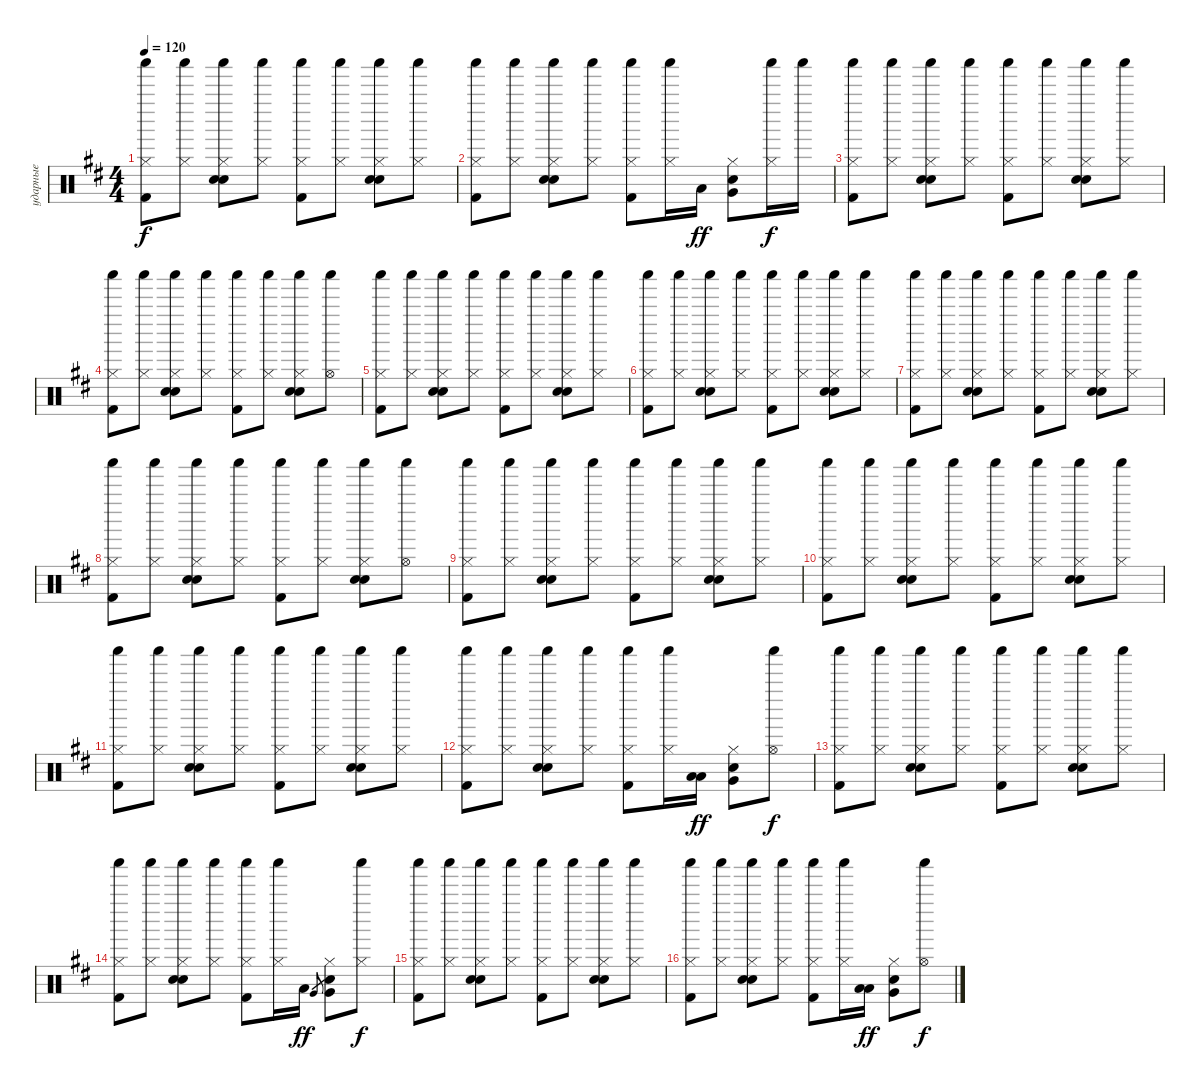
\track ("ударные" "ударные") {instrument percussion}
\staff {score}
\articulation defaults
\ts (4 4)
\tempo 120
\clef neutral
\ks bminor
("Hi-Hat (closed)" "Shaker (hit)" "Kick (hit) 2").8{dy f} ("Hi-Hat (closed)" "Shaker (hit)").8 ("Hi-Hat (closed)" "Shaker (hit)" "Hand Clap (hit)" "Snare (hit) 2").8 ("Hi-Hat (closed)" "Shaker (hit)").8 ("Hi-Hat (closed)" "Shaker (hit)" "Kick (hit) 2").8 ("Hi-Hat (closed)" "Shaker (hit)").8 ("Hi-Hat (closed)" "Shaker (hit)" "Hand Clap (hit)" "Snare (hit) 2").8 ("Hi-Hat (closed)" "Shaker (hit)").8 |
("Hi-Hat (closed)" "Shaker (hit)" "Kick (hit) 2").8 ("Hi-Hat (closed)" "Shaker (hit)").8 ("Hi-Hat (closed)" "Shaker (hit)" "Hand Clap (hit)" "Snare (hit) 2").8 ("Hi-Hat (closed)" "Shaker (hit)").8 ("Hi-Hat (closed)" "Shaker (hit)" "Kick (hit) 2").8 ("Hi-Hat (closed)" "Shaker (hit)").16 "Low Floor Tom (hit)".16{dy ff} ("Snare (hit) 2" "Very Low Tom (hit)" "Hi-Hat (closed)").8 ("Hi-Hat (closed)" "Shaker (hit)").16{dy f} "Shaker (hit)".16 |
("Hi-Hat (closed)" "Shaker (hit)" "Kick (hit) 2").8 ("Hi-Hat (closed)" "Shaker (hit)").8 ("Hi-Hat (closed)" "Shaker (hit)" "Hand Clap (hit)" "Snare (hit) 2").8 ("Hi-Hat (closed)" "Shaker (hit)").8 ("Hi-Hat (closed)" "Shaker (hit)" "Kick (hit) 2").8 ("Hi-Hat (closed)" "Shaker (hit)").8 ("Hi-Hat (closed)" "Shaker (hit)" "Hand Clap (hit)" "Snare (hit) 2").8 ("Hi-Hat (closed)" "Shaker (hit)").8 |
("Hi-Hat (closed)" "Shaker (hit)" "Kick (hit) 2").8 ("Hi-Hat (closed)" "Shaker (hit)").8 ("Hi-Hat (closed)" "Shaker (hit)" "Hand Clap (hit)" "Snare (hit) 2").8 ("Hi-Hat (closed)" "Shaker (hit)").8 ("Hi-Hat (closed)" "Shaker (hit)" "Kick (hit) 2").8 ("Hi-Hat (closed)" "Shaker (hit)").8 ("Hi-Hat (closed)" "Shaker (hit)" "Hand Clap (hit)" "Snare (hit) 2").8 ("Shaker (hit)" "Hi-Hat (open)").8 |
("Hi-Hat (closed)" "Shaker (hit)" "Kick (hit) 2").8 ("Hi-Hat (closed)" "Shaker (hit)").8 ("Hi-Hat (closed)" "Shaker (hit)" "Hand Clap (hit)" "Snare (hit) 2").8 ("Hi-Hat (closed)" "Shaker (hit)").8 ("Hi-Hat (closed)" "Shaker (hit)" "Kick (hit) 2").8 ("Hi-Hat (closed)" "Shaker (hit)").8 ("Hi-Hat (closed)" "Shaker (hit)" "Hand Clap (hit)" "Snare (hit) 2").8 ("Hi-Hat (closed)" "Shaker (hit)").8 |
("Hi-Hat (closed)" "Shaker (hit)" "Kick (hit) 2").8 ("Hi-Hat (closed)" "Shaker (hit)").8 ("Hi-Hat (closed)" "Shaker (hit)" "Hand Clap (hit)" "Snare (hit) 2").8 ("Hi-Hat (closed)" "Shaker (hit)").8 ("Hi-Hat (closed)" "Shaker (hit)" "Kick (hit) 2").8 ("Hi-Hat (closed)" "Shaker (hit)").8 ("Hi-Hat (closed)" "Shaker (hit)" "Hand Clap (hit)" "Snare (hit) 2").8 ("Hi-Hat (closed)" "Shaker (hit)").8 |
("Hi-Hat (closed)" "Shaker (hit)" "Kick (hit) 2").8 ("Hi-Hat (closed)" "Shaker (hit)").8 ("Hi-Hat (closed)" "Shaker (hit)" "Hand Clap (hit)" "Snare (hit) 2").8 ("Hi-Hat (closed)" "Shaker (hit)").8 ("Hi-Hat (closed)" "Shaker (hit)" "Kick (hit) 2").8 ("Hi-Hat (closed)" "Shaker (hit)").8 ("Hi-Hat (closed)" "Shaker (hit)" "Hand Clap (hit)" "Snare (hit) 2").8 ("Hi-Hat (closed)" "Shaker (hit)").8 |
("Hi-Hat (closed)" "Shaker (hit)" "Kick (hit) 2").8 ("Hi-Hat (closed)" "Shaker (hit)").8 ("Hi-Hat (closed)" "Shaker (hit)" "Hand Clap (hit)" "Snare (hit) 2").8 ("Hi-Hat (closed)" "Shaker (hit)").8 ("Hi-Hat (closed)" "Shaker (hit)" "Kick (hit) 2").8 ("Hi-Hat (closed)" "Shaker (hit)").8 ("Hi-Hat (closed)" "Shaker (hit)" "Hand Clap (hit)" "Snare (hit) 2").8 ("Shaker (hit)" "Hi-Hat (open)").8 |
("Hi-Hat (closed)" "Shaker (hit)" "Kick (hit) 2").8 ("Hi-Hat (closed)" "Shaker (hit)").8 ("Hi-Hat (closed)" "Shaker (hit)" "Hand Clap (hit)" "Snare (hit) 2").8 ("Hi-Hat (closed)" "Shaker (hit)").8 ("Hi-Hat (closed)" "Shaker (hit)" "Kick (hit) 2").8 ("Hi-Hat (closed)" "Shaker (hit)").8 ("Hi-Hat (closed)" "Shaker (hit)" "Hand Clap (hit)" "Snare (hit) 2").8 ("Hi-Hat (closed)" "Shaker (hit)").8 |
("Hi-Hat (closed)" "Shaker (hit)" "Kick (hit) 2").8 ("Hi-Hat (closed)" "Shaker (hit)").8 ("Hi-Hat (closed)" "Shaker (hit)" "Hand Clap (hit)" "Snare (hit) 2").8 ("Hi-Hat (closed)" "Shaker (hit)").8 ("Hi-Hat (closed)" "Shaker (hit)" "Kick (hit) 2").8 ("Hi-Hat (closed)" "Shaker (hit)").8 ("Hi-Hat (closed)" "Shaker (hit)" "Hand Clap (hit)" "Snare (hit) 2").8 ("Hi-Hat (closed)" "Shaker (hit)").8 |
("Hi-Hat (closed)" "Shaker (hit)" "Kick (hit) 2").8 ("Hi-Hat (closed)" "Shaker (hit)").8 ("Hi-Hat (closed)" "Shaker (hit)" "Hand Clap (hit)" "Snare (hit) 2").8 ("Hi-Hat (closed)" "Shaker (hit)").8 ("Hi-Hat (closed)" "Shaker (hit)" "Kick (hit) 2").8 ("Hi-Hat (closed)" "Shaker (hit)").8 ("Hi-Hat (closed)" "Shaker (hit)" "Hand Clap (hit)" "Snare (hit) 2").8 ("Hi-Hat (closed)" "Shaker (hit)").8 |
("Hi-Hat (closed)" "Shaker (hit)" "Kick (hit) 2").8 ("Hi-Hat (closed)" "Shaker (hit)").8 ("Hi-Hat (closed)" "Shaker (hit)" "Hand Clap (hit)" "Snare (hit) 2").8 ("Hi-Hat (closed)" "Shaker (hit)").8 ("Hi-Hat (closed)" "Shaker (hit)" "Kick (hit) 2").8 ("Hi-Hat (closed)" "Shaker (hit)").16 ("Low Tom (hit)" "Low Floor Tom (hit)").16{dy ff} ("Snare (hit) 2" "Very Low Tom (hit)" "Hi-Hat (closed)").8 ("Shaker (hit)" "Hi-Hat (open)").8{dy f} |
("Hi-Hat (closed)" "Shaker (hit)" "Kick (hit) 2").8 ("Hi-Hat (closed)" "Shaker (hit)").8 ("Hi-Hat (closed)" "Shaker (hit)" "Hand Clap (hit)" "Snare (hit) 2").8 ("Hi-Hat (closed)" "Shaker (hit)").8 ("Hi-Hat (closed)" "Shaker (hit)" "Kick (hit) 2").8 ("Hi-Hat (closed)" "Shaker (hit)").8 ("Hi-Hat (closed)" "Shaker (hit)" "Hand Clap (hit)" "Snare (hit) 2").8 ("Hi-Hat (closed)" "Shaker (hit)").8 |
("Hi-Hat (closed)" "Shaker (hit)" "Kick (hit) 2").8 ("Hi-Hat (closed)" "Shaker (hit)").8 ("Hi-Hat (closed)" "Shaker (hit)" "Hand Clap (hit)" "Snare (hit) 2").8 ("Hi-Hat (closed)" "Shaker (hit)").8 ("Hi-Hat (closed)" "Shaker (hit)" "Kick (hit) 2").8 ("Hi-Hat (closed)" "Shaker (hit)").16 "Low Tom (hit)".16{dy ff} "Very Low Tom (hit)".8{gr} ("Snare (hit) 2" "Very Low Tom (hit)" "Hi-Hat (closed)").8 ("Hi-Hat (closed)" "Shaker (hit)").8{dy f} |
("Hi-Hat (closed)" "Shaker (hit)" "Kick (hit) 2").8 ("Hi-Hat (closed)" "Shaker (hit)").8 ("Hi-Hat (closed)" "Shaker (hit)" "Hand Clap (hit)" "Snare (hit) 2").8 ("Hi-Hat (closed)" "Shaker (hit)").8 ("Hi-Hat (closed)" "Shaker (hit)" "Kick (hit) 2").8 ("Hi-Hat (closed)" "Shaker (hit)").8 ("Hi-Hat (closed)" "Shaker (hit)" "Hand Clap (hit)" "Snare (hit) 2").8 ("Hi-Hat (closed)" "Shaker (hit)").8 |
("Hi-Hat (closed)" "Shaker (hit)" "Kick (hit) 2").8 ("Hi-Hat (closed)" "Shaker (hit)").8 ("Hi-Hat (closed)" "Shaker (hit)" "Hand Clap (hit)" "Snare (hit) 2").8 ("Hi-Hat (closed)" "Shaker (hit)").8 ("Hi-Hat (closed)" "Shaker (hit)" "Kick (hit) 2").8 ("Hi-Hat (closed)" "Shaker (hit)").16 ("Low Tom (hit)" "Low Floor Tom (hit)").16{dy ff} ("Snare (hit) 2" "Very Low Tom (hit)" "Hi-Hat (closed)").8 ("Shaker (hit)" "Hi-Hat (open)").8{dy f}
